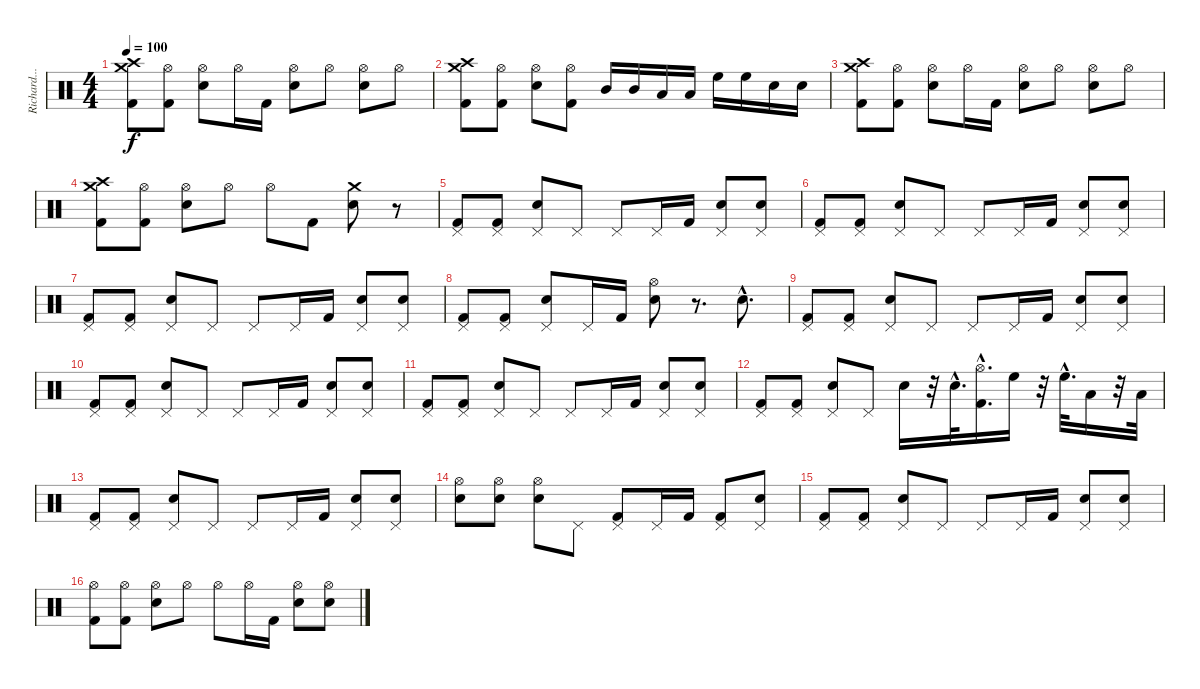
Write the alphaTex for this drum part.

\track ("Richard...clon..." "Richard...") {instrument percussion}
\staff {score}
\articulation defaults
\ts (4 4)
\tempo 100
\clef neutral
\ks c
("Crash medium (hit)" "Crash high (hit)" "Kick (hit) 2").8{dy f} ("Hi-Hat (open)" "Kick (hit) 2").8 ("Hi-Hat (open)" "Snare (hit) 2").8 "Hi-Hat (open)".16 "Kick (hit) 2".16 ("Hi-Hat (open)" "Snare (hit) 2").8 "Hi-Hat (open)".8 ("Hi-Hat (open)" "Snare (hit) 2").8 "Hi-Hat (open)".8 |
("Crash medium (hit)" "Crash high (hit)" "Kick (hit) 2").8 ("Hi-Hat (open)" "Kick (hit) 2").8 ("Hi-Hat (open)" "Snare (hit) 2").8 ("Hi-Hat (open)" "Kick (hit) 2").8 "Mid Tom (hit)".16 "Mid Tom (hit)".16 "Low Tom (hit)".16 "Low Tom (hit)".16 "High Floor Tom (hit)".16 "High Floor Tom (hit)".16 "Snare (hit) 2".16 "Snare (hit) 2".16 |
("Crash medium (hit)" "Crash high (hit)" "Kick (hit) 2").8 ("Hi-Hat (open)" "Kick (hit) 2").8 ("Hi-Hat (open)" "Snare (hit) 2").8 "Hi-Hat (open)".16 "Kick (hit) 2".16 ("Hi-Hat (open)" "Snare (hit) 2").8 "Hi-Hat (open)".8 ("Hi-Hat (open)" "Snare (hit) 2").8 "Hi-Hat (open)".8 |
("Crash medium (hit)" "Crash high (hit)" "Kick (hit) 2").8 ("Hi-Hat (open)" "Kick (hit) 2").8 ("Hi-Hat (open)" "Snare (hit) 2").8 "Hi-Hat (open)".8 "Hi-Hat (open)".8 "Kick (hit) 2".8 ("Crash medium (hit)" "Snare (hit) 2").8 r.8 |
("Pedal Hi-Hat (hit)" "Kick (hit) 2").8 ("Pedal Hi-Hat (hit)" "Kick (hit) 2").8 ("Pedal Hi-Hat (hit)" "Snare (hit) 2").8 "Pedal Hi-Hat (hit)".8 "Pedal Hi-Hat (hit)".8 "Pedal Hi-Hat (hit)".16 "Kick (hit) 2".16 ("Pedal Hi-Hat (hit)" "Snare (hit) 2").8 ("Pedal Hi-Hat (hit)" "Snare (hit) 2").8 |
("Pedal Hi-Hat (hit)" "Kick (hit) 2").8 ("Pedal Hi-Hat (hit)" "Kick (hit) 2").8 ("Pedal Hi-Hat (hit)" "Snare (hit) 2").8 "Pedal Hi-Hat (hit)".8 "Pedal Hi-Hat (hit)".8 "Pedal Hi-Hat (hit)".16 "Kick (hit) 2".16 ("Pedal Hi-Hat (hit)" "Snare (hit) 2").8 ("Pedal Hi-Hat (hit)" "Snare (hit) 2").8 |
("Pedal Hi-Hat (hit)" "Kick (hit) 2").8 ("Pedal Hi-Hat (hit)" "Kick (hit) 2").8 ("Pedal Hi-Hat (hit)" "Snare (hit) 2").8 "Pedal Hi-Hat (hit)".8 "Pedal Hi-Hat (hit)".8 "Pedal Hi-Hat (hit)".16 "Kick (hit) 2".16 ("Pedal Hi-Hat (hit)" "Snare (hit) 2").8 ("Pedal Hi-Hat (hit)" "Snare (hit) 2").8 |
("Pedal Hi-Hat (hit)" "Kick (hit) 2").8 ("Pedal Hi-Hat (hit)" "Kick (hit) 2").8 ("Pedal Hi-Hat (hit)" "Snare (hit) 2").8 "Pedal Hi-Hat (hit)".16 "Kick (hit) 2".16 ("Snare (hit) 2" "Hi-Hat (open)").8 r.8{d} "Snare (hit) 2"{hac}.8{d} |
("Pedal Hi-Hat (hit)" "Kick (hit) 2").8 ("Pedal Hi-Hat (hit)" "Kick (hit) 2").8 ("Pedal Hi-Hat (hit)" "Snare (hit) 2").8 "Pedal Hi-Hat (hit)".8 "Pedal Hi-Hat (hit)".8 "Pedal Hi-Hat (hit)".16 "Kick (hit) 2".16 ("Pedal Hi-Hat (hit)" "Snare (hit) 2").8 ("Pedal Hi-Hat (hit)" "Snare (hit) 2").8 |
("Pedal Hi-Hat (hit)" "Kick (hit) 2").8 ("Pedal Hi-Hat (hit)" "Kick (hit) 2").8 ("Pedal Hi-Hat (hit)" "Snare (hit) 2").8 "Pedal Hi-Hat (hit)".8 "Pedal Hi-Hat (hit)".8 "Pedal Hi-Hat (hit)".16 "Kick (hit) 2".16 ("Pedal Hi-Hat (hit)" "Snare (hit) 2").8 ("Pedal Hi-Hat (hit)" "Snare (hit) 2").8 |
("Pedal Hi-Hat (hit)" "Kick (hit) 2").8 ("Pedal Hi-Hat (hit)" "Kick (hit) 2").8 ("Pedal Hi-Hat (hit)" "Snare (hit) 2").8 "Pedal Hi-Hat (hit)".8 "Pedal Hi-Hat (hit)".8 "Pedal Hi-Hat (hit)".16 "Kick (hit) 2".16 ("Pedal Hi-Hat (hit)" "Snare (hit) 2").8 ("Pedal Hi-Hat (hit)" "Snare (hit) 2").8 |
("Pedal Hi-Hat (hit)" "Kick (hit) 2").8 ("Pedal Hi-Hat (hit)" "Kick (hit) 2").8 ("Pedal Hi-Hat (hit)" "Snare (hit) 2").8 "Pedal Hi-Hat (hit)".8 "Snare (hit) 2".16 r.32 "Snare (hit) 2"{hac}.32{d} ("Hi-Hat (open)"{hac} "Kick (hit) 2"{hac}).16{d} "High Floor Tom (hit)".16 r.32 "High Floor Tom (hit)"{hac}.32{d} "Low Tom (hit)".16 r.32 "Low Tom (hit)".32 |
("Pedal Hi-Hat (hit)" "Kick (hit) 2").8 ("Pedal Hi-Hat (hit)" "Kick (hit) 2").8 ("Pedal Hi-Hat (hit)" "Snare (hit) 2").8 "Pedal Hi-Hat (hit)".8 "Pedal Hi-Hat (hit)".8 "Pedal Hi-Hat (hit)".16 "Kick (hit) 2".16 ("Pedal Hi-Hat (hit)" "Snare (hit) 2").8 ("Pedal Hi-Hat (hit)" "Snare (hit) 2").8 |
("Hi-Hat (open)" "Snare (hit) 2").8 ("Hi-Hat (open)" "Snare (hit) 2").8 ("Hi-Hat (open)" "Snare (hit) 2").8 "Pedal Hi-Hat (hit)".8 ("Pedal Hi-Hat (hit)" "Kick (hit) 2").8 "Pedal Hi-Hat (hit)".16 "Kick (hit) 2".16 ("Pedal Hi-Hat (hit)" "Kick (hit) 2").8 ("Pedal Hi-Hat (hit)" "Snare (hit) 2").8 |
("Pedal Hi-Hat (hit)" "Kick (hit) 2").8 ("Pedal Hi-Hat (hit)" "Kick (hit) 2").8 ("Pedal Hi-Hat (hit)" "Snare (hit) 2").8 "Pedal Hi-Hat (hit)".8 "Pedal Hi-Hat (hit)".8 "Pedal Hi-Hat (hit)".16 "Kick (hit) 2".16 ("Pedal Hi-Hat (hit)" "Snare (hit) 2").8 ("Pedal Hi-Hat (hit)" "Snare (hit) 2").8 |
("Hi-Hat (open)" "Kick (hit) 2").8 ("Hi-Hat (open)" "Kick (hit) 2").8 ("Hi-Hat (open)" "Snare (hit) 2").8 "Hi-Hat (open)".8 "Hi-Hat (open)".8 "Hi-Hat (open)".16 "Kick (hit) 2".16 ("Hi-Hat (open)" "Snare (hit) 2").8 ("Hi-Hat (open)" "Snare (hit) 2").8
